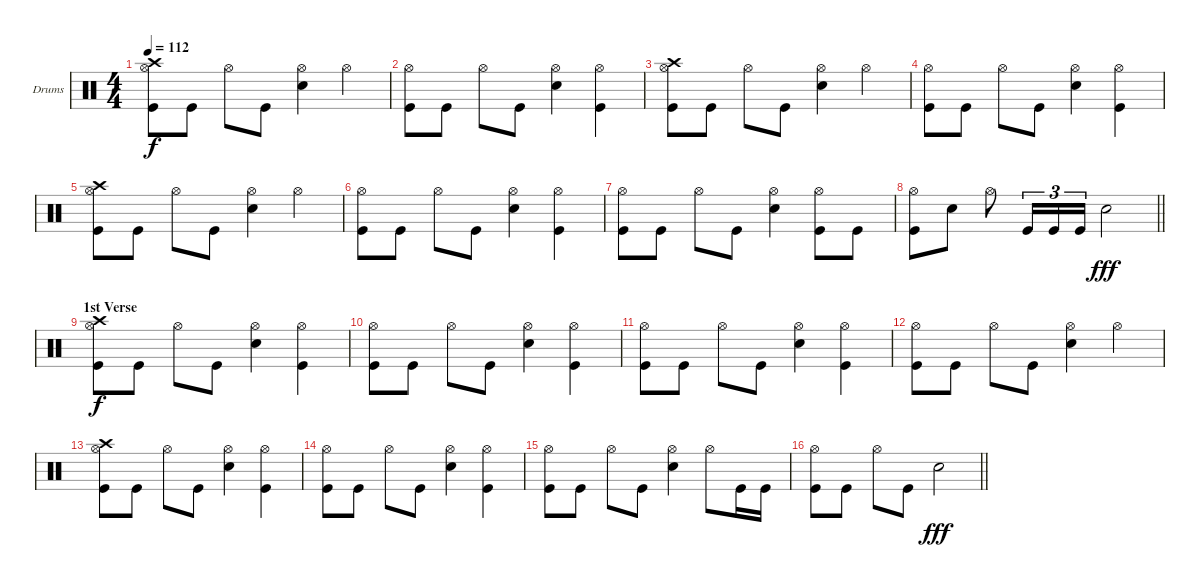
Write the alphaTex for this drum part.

\bracketExtendMode groupsimilarinstruments
\firstSystemTrackNameOrientation horizontal
\otherSystemsTrackNameOrientation horizontal
\track ("Drumkit" "Drums") {instrument percussion}
\staff {score}
\articulation defaults
\ts (4 4)
\tempo 112
\clef neutral
\ks c
("Kick (hit)" "Hi-Hat (open)" "Crash high (hit)").8{dy f} "Kick (hit)".8 "Hi-Hat (open)".8 "Kick (hit)".8 ("Snare (hit) 2" "Hi-Hat (open)").4 "Hi-Hat (open)".4 |
("Kick (hit)" "Hi-Hat (open)").8 "Kick (hit)".8 "Hi-Hat (open)".8 "Kick (hit)".8 ("Snare (hit) 2" "Hi-Hat (open)").4 ("Kick (hit)" "Hi-Hat (open)").4 |
("Kick (hit)" "Hi-Hat (open)" "Crash high (hit)").8 "Kick (hit)".8 "Hi-Hat (open)".8 "Kick (hit)".8 ("Snare (hit) 2" "Hi-Hat (open)").4 "Hi-Hat (open)".4 |
("Kick (hit)" "Hi-Hat (open)").8 "Kick (hit)".8 "Hi-Hat (open)".8 "Kick (hit)".8 ("Snare (hit) 2" "Hi-Hat (open)").4 ("Kick (hit)" "Hi-Hat (open)").4 |
("Kick (hit)" "Hi-Hat (open)" "Crash high (hit)").8 "Kick (hit)".8 "Hi-Hat (open)".8 "Kick (hit)".8 ("Snare (hit) 2" "Hi-Hat (open)").4 "Hi-Hat (open)".4 |
("Kick (hit)" "Hi-Hat (open)").8 "Kick (hit)".8 "Hi-Hat (open)".8 "Kick (hit)".8 ("Snare (hit) 2" "Hi-Hat (open)").4 ("Kick (hit)" "Hi-Hat (open)").4 |
("Kick (hit)" "Hi-Hat (open)").8 "Kick (hit)".8 "Hi-Hat (open)".8 "Kick (hit)".8 ("Snare (hit) 2" "Hi-Hat (open)").4 ("Kick (hit)" "Hi-Hat (open)").8 "Kick (hit)".8 |
\barLineRight lightlight
("Kick (hit)" "Hi-Hat (open)").8 "Snare (hit) 2".8 "Hi-Hat (open)".8 "Kick (hit)".16{tu (3 2)} "Kick (hit)".16{tu (3 2)} "Kick (hit)".16{tu (3 2)} "Snare (hit) 2".2{dy fff} |
\section ("" "1st Verse")
("Kick (hit)" "Hi-Hat (open)" "Crash high (hit)").8{dy f} "Kick (hit)".8 "Hi-Hat (open)".8 "Kick (hit)".8 ("Snare (hit) 2" "Hi-Hat (open)").4 ("Kick (hit)" "Hi-Hat (open)").4 |
("Kick (hit)" "Hi-Hat (open)").8 "Kick (hit)".8 "Hi-Hat (open)".8 "Kick (hit)".8 ("Snare (hit) 2" "Hi-Hat (open)").4 ("Kick (hit)" "Hi-Hat (open)").4 |
("Kick (hit)" "Hi-Hat (open)").8 "Kick (hit)".8 "Hi-Hat (open)".8 "Kick (hit)".8 ("Snare (hit) 2" "Hi-Hat (open)").4 ("Kick (hit)" "Hi-Hat (open)").4 |
("Kick (hit)" "Hi-Hat (open)").8 "Kick (hit)".8 "Hi-Hat (open)".8 "Kick (hit)".8 ("Snare (hit) 2" "Hi-Hat (open)").4 "Hi-Hat (open)".4 |
("Kick (hit)" "Hi-Hat (open)" "Crash high (hit)").8 "Kick (hit)".8 "Hi-Hat (open)".8 "Kick (hit)".8 ("Snare (hit) 2" "Hi-Hat (open)").4 ("Kick (hit)" "Hi-Hat (open)").4 |
("Kick (hit)" "Hi-Hat (open)").8 "Kick (hit)".8 "Hi-Hat (open)".8 "Kick (hit)".8 ("Snare (hit) 2" "Hi-Hat (open)").4 ("Kick (hit)" "Hi-Hat (open)").4 |
("Kick (hit)" "Hi-Hat (open)").8 "Kick (hit)".8 "Hi-Hat (open)".8 "Kick (hit)".8 ("Snare (hit) 2" "Hi-Hat (open)").4 "Hi-Hat (open)".8 "Kick (hit)".16 "Kick (hit)".16 |
\barLineRight lightlight
("Kick (hit)" "Hi-Hat (open)").8 "Kick (hit)".8 "Hi-Hat (open)".8 "Kick (hit)".8 "Snare (hit) 2".2{dy fff}
